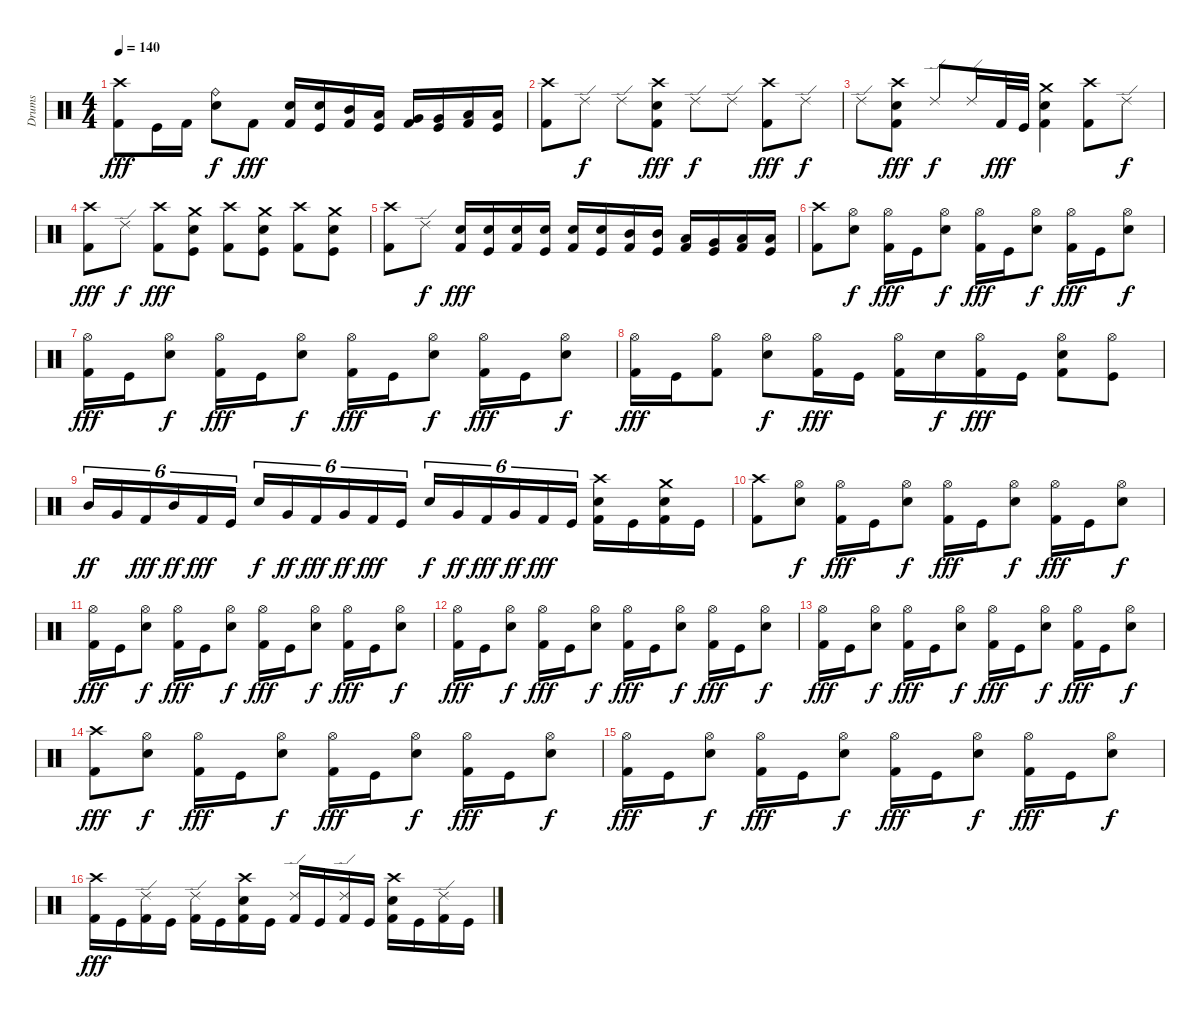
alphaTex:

\track ("Drums" "Drums") {instrument percussion}
\staff {score}
\articulation defaults
\ts (4 4)
\tempo 140
\clef neutral
\ks c
("Crash high (hit)" "Kick (hit) 2").8{dy fff} "Kick (hit)".16 "Kick (hit) 2".16 ("Ride (bell)" "Electric Snare (hit)").8{dy f} "Kick (hit) 2".8{dy fff} ("Electric Snare (hit)" "Kick (hit) 2").16 ("Electric Snare (hit)" "Kick (hit)").16 ("Mid Tom (hit)" "Kick (hit) 2").16 ("Low Tom (hit)" "Kick (hit)").16 ("Very Low Tom (hit)" "Kick (hit) 2").16 ("Very Low Tom (hit)" "Kick (hit)").16 ("Low Floor Tom (hit)" "Kick (hit) 2").16 ("Low Floor Tom (hit)" "Kick (hit)").16 |
("Crash high (hit)" "Kick (hit) 2").8 "Ride (edge) 2".8{dy f} "Ride (edge) 2".8 ("Crash high (hit)" "Electric Snare (hit)" "Kick (hit) 2").8{dy fff} "Ride (edge) 2".8{dy f} "Ride (edge) 2".8 ("Crash high (hit)" "Kick (hit) 2").8{dy fff} "Ride (edge) 2".8{dy f} |
"Ride (edge) 2".8 ("Crash high (hit)" "Electric Snare (hit)" "Kick (hit) 2").8{dy fff} "Ride (edge) 2".8{dy f} "Ride (edge) 2".16 "Kick (hit) 2".32{dy fff} "Kick (hit)".32 ("Crash medium (hit)" "Electric Snare (hit)" "Kick (hit) 2").4 ("Crash high (hit)" "Kick (hit) 2").8 "Ride (edge) 2".8{dy f} |
("Crash high (hit)" "Kick (hit) 2").8{dy fff} "Ride (edge) 2".8{dy f} ("Crash high (hit)" "Kick (hit) 2").8{dy fff} ("Crash medium (hit)" "Electric Snare (hit)" "Kick (hit)").8 ("Crash high (hit)" "Kick (hit) 2").8 ("Crash medium (hit)" "Electric Snare (hit)" "Kick (hit)").8 ("Crash high (hit)" "Kick (hit) 2").8 ("Crash medium (hit)" "Electric Snare (hit)" "Kick (hit)").8 |
("Crash high (hit)" "Kick (hit) 2").8 "Ride (edge) 2".8{dy f} ("Electric Snare (hit)" "Kick (hit) 2").16{dy fff} ("Electric Snare (hit)" "Kick (hit)").16 ("Electric Snare (hit)" "Kick (hit) 2").16 ("Electric Snare (hit)" "Kick (hit)").16 ("Electric Snare (hit)" "Kick (hit) 2").16 ("Electric Snare (hit)" "Kick (hit)").16 ("Mid Tom (hit)" "Kick (hit) 2").16 ("Mid Tom (hit)" "Kick (hit)").16 ("Low Tom (hit)" "Kick (hit) 2").16 ("Very Low Tom (hit)" "Kick (hit)").16 ("Low Floor Tom (hit)" "Kick (hit) 2").16 ("Low Floor Tom (hit)" "Kick (hit)").16 |
("Crash high (hit)" "Kick (hit) 2").8 ("Hi-Hat (open)" "Electric Snare (hit)").8{dy f} ("Hi-Hat (open)" "Kick (hit) 2").16{dy fff} "Kick (hit)".16 ("Hi-Hat (open)" "Electric Snare (hit)").8{dy f} ("Hi-Hat (open)" "Kick (hit) 2").16{dy fff} "Kick (hit)".16 ("Hi-Hat (open)" "Electric Snare (hit)").8{dy f} ("Hi-Hat (open)" "Kick (hit) 2").16{dy fff} "Kick (hit)".16 ("Hi-Hat (open)" "Electric Snare (hit)").8{dy f} |
("Hi-Hat (open)" "Kick (hit) 2").16{dy fff} "Kick (hit)".16 ("Hi-Hat (open)" "Electric Snare (hit)").8{dy f} ("Hi-Hat (open)" "Kick (hit) 2").16{dy fff} "Kick (hit)".16 ("Hi-Hat (open)" "Electric Snare (hit)").8{dy f} ("Hi-Hat (open)" "Kick (hit) 2").16{dy fff} "Kick (hit)".16 ("Hi-Hat (open)" "Electric Snare (hit)").8{dy f} ("Hi-Hat (open)" "Kick (hit) 2").16{dy fff} "Kick (hit)".16 ("Hi-Hat (open)" "Electric Snare (hit)").8{dy f} |
("Hi-Hat (open)" "Kick (hit) 2").16{dy fff} "Kick (hit)".16 ("Hi-Hat (open)" "Kick (hit) 2").8 ("Hi-Hat (open)" "Electric Snare (hit)").8{dy f} ("Hi-Hat (open)" "Kick (hit) 2").16{dy fff} "Kick (hit)".16 ("Hi-Hat (open)" "Kick (hit) 2").16 "Electric Snare (hit)".16{dy f} ("Hi-Hat (open)" "Kick (hit) 2").16{dy fff} "Kick (hit)".16 ("Hi-Hat (open)" "Electric Snare (hit)" "Kick (hit) 2").8 ("Hi-Hat (open)" "Kick (hit)").8 |
"Mid Tom (hit)".16{tu (6 4) dy ff} "Very Low Tom (hit)".16{tu (6 4)} "Kick (hit) 2".16{tu (6 4) dy fff} "Mid Tom (hit)".16{tu (6 4) dy ff} "Kick (hit) 2".16{tu (6 4) dy fff} "Kick (hit)".16{tu (6 4)} "Electric Snare (hit)".16{tu (6 4) dy f} "Very Low Tom (hit)".16{tu (6 4) dy ff} "Kick (hit) 2".16{tu (6 4) dy fff} "Very Low Tom (hit)".16{tu (6 4) dy ff} "Kick (hit) 2".16{tu (6 4) dy fff} "Kick (hit)".16{tu (6 4)} "Electric Snare (hit)".16{tu (6 4) dy f} "Very Low Tom (hit)".16{tu (6 4) dy ff} "Kick (hit) 2".16{tu (6 4) dy fff} "Very Low Tom (hit)".16{tu (6 4) dy ff} "Kick (hit) 2".16{tu (6 4) dy fff} "Kick (hit)".16{tu (6 4)} ("Crash high (hit)" "Electric Snare (hit)" "Kick (hit) 2").16 "Kick (hit)".16 ("Crash medium (hit)" "Electric Snare (hit)" "Kick (hit) 2").16 "Kick (hit)".16 |
("Crash high (hit)" "Kick (hit) 2").8 ("Hi-Hat (open)" "Electric Snare (hit)").8{dy f} ("Hi-Hat (open)" "Kick (hit) 2").16{dy fff} "Kick (hit)".16 ("Hi-Hat (open)" "Electric Snare (hit)").8{dy f} ("Hi-Hat (open)" "Kick (hit) 2").16{dy fff} "Kick (hit)".16 ("Hi-Hat (open)" "Electric Snare (hit)").8{dy f} ("Hi-Hat (open)" "Kick (hit) 2").16{dy fff} "Kick (hit)".16 ("Hi-Hat (open)" "Electric Snare (hit)").8{dy f} |
("Hi-Hat (open)" "Kick (hit) 2").16{dy fff} "Kick (hit)".16 ("Hi-Hat (open)" "Electric Snare (hit)").8{dy f} ("Hi-Hat (open)" "Kick (hit) 2").16{dy fff} "Kick (hit)".16 ("Hi-Hat (open)" "Electric Snare (hit)").8{dy f} ("Hi-Hat (open)" "Kick (hit) 2").16{dy fff} "Kick (hit)".16 ("Hi-Hat (open)" "Electric Snare (hit)").8{dy f} ("Hi-Hat (open)" "Kick (hit) 2").16{dy fff} "Kick (hit)".16 ("Hi-Hat (open)" "Electric Snare (hit)").8{dy f} |
("Hi-Hat (open)" "Kick (hit) 2").16{dy fff} "Kick (hit)".16 ("Hi-Hat (open)" "Electric Snare (hit)").8{dy f} ("Hi-Hat (open)" "Kick (hit) 2").16{dy fff} "Kick (hit)".16 ("Hi-Hat (open)" "Electric Snare (hit)").8{dy f} ("Hi-Hat (open)" "Kick (hit) 2").16{dy fff} "Kick (hit)".16 ("Hi-Hat (open)" "Electric Snare (hit)").8{dy f} ("Hi-Hat (open)" "Kick (hit) 2").16{dy fff} "Kick (hit)".16 ("Hi-Hat (open)" "Electric Snare (hit)").8{dy f} |
("Hi-Hat (open)" "Kick (hit) 2").16{dy fff} "Kick (hit)".16 ("Hi-Hat (open)" "Electric Snare (hit)").8{dy f} ("Hi-Hat (open)" "Kick (hit) 2").16{dy fff} "Kick (hit)".16 ("Hi-Hat (open)" "Electric Snare (hit)").8{dy f} ("Hi-Hat (open)" "Kick (hit) 2").16{dy fff} "Kick (hit)".16 ("Hi-Hat (open)" "Electric Snare (hit)").8{dy f} ("Hi-Hat (open)" "Kick (hit) 2").16{dy fff} "Kick (hit)".16 ("Hi-Hat (open)" "Electric Snare (hit)").8{dy f} |
("Crash high (hit)" "Kick (hit) 2").8{dy fff} ("Hi-Hat (open)" "Electric Snare (hit)").8{dy f} ("Hi-Hat (open)" "Kick (hit) 2").16{dy fff} "Kick (hit)".16 ("Hi-Hat (open)" "Electric Snare (hit)").8{dy f} ("Hi-Hat (open)" "Kick (hit) 2").16{dy fff} "Kick (hit)".16 ("Hi-Hat (open)" "Electric Snare (hit)").8{dy f} ("Hi-Hat (open)" "Kick (hit) 2").16{dy fff} "Kick (hit)".16 ("Hi-Hat (open)" "Electric Snare (hit)").8{dy f} |
("Hi-Hat (open)" "Kick (hit) 2").16{dy fff} "Kick (hit)".16 ("Hi-Hat (open)" "Electric Snare (hit)").8{dy f} ("Hi-Hat (open)" "Kick (hit) 2").16{dy fff} "Kick (hit)".16 ("Hi-Hat (open)" "Electric Snare (hit)").8{dy f} ("Hi-Hat (open)" "Kick (hit) 2").16{dy fff} "Kick (hit)".16 ("Hi-Hat (open)" "Electric Snare (hit)").8{dy f} ("Hi-Hat (open)" "Kick (hit) 2").16{dy fff} "Kick (hit)".16 ("Hi-Hat (open)" "Electric Snare (hit)").8{dy f} |
("Crash high (hit)" "Kick (hit) 2").16{dy fff} "Kick (hit)".16 ("Ride (edge) 2" "Kick (hit) 2").16 "Kick (hit)".16 ("Ride (edge) 2" "Kick (hit) 2").16 "Kick (hit)".16 ("Crash high (hit)" "Electric Snare (hit)" "Kick (hit) 2").16 "Kick (hit)".16 ("Ride (edge) 2" "Kick (hit) 2").16 "Kick (hit)".16 ("Ride (edge) 2" "Kick (hit) 2").16 "Kick (hit)".16 ("Crash high (hit)" "Electric Snare (hit)" "Kick (hit) 2").16 "Kick (hit)".16 ("Ride (edge) 2" "Kick (hit) 2").16 "Kick (hit)".16
